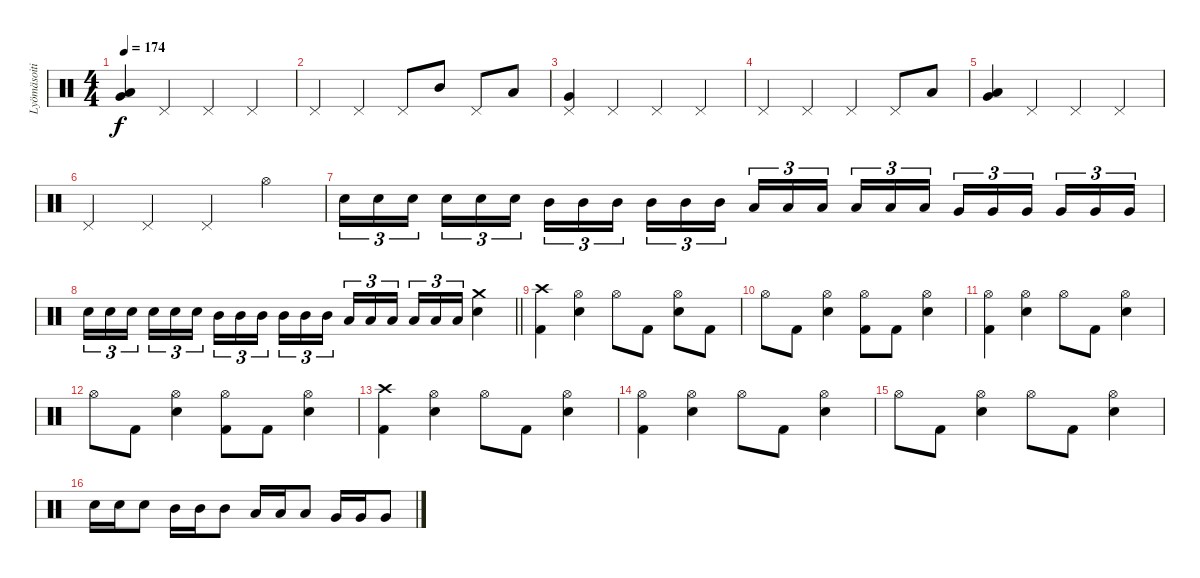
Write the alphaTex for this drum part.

\track ("Lyömäsoitin" "Lyömäsoiti") {instrument percussion}
\staff {score}
\articulation defaults
\ts (4 4)
\tempo 174
\clef neutral
\ks c
("Low Tom (hit)" "Very Low Tom (hit)").4{dy f} "Pedal Hi-Hat (hit)".4 "Pedal Hi-Hat (hit)".4 "Pedal Hi-Hat (hit)".4 |
"Pedal Hi-Hat (hit)".4 "Pedal Hi-Hat (hit)".4 "Pedal Hi-Hat (hit)".8 "Mid Tom (hit)".8 "Pedal Hi-Hat (hit)".8 "Low Tom (hit)".8 |
("Pedal Hi-Hat (hit)" "Very Low Tom (hit)").4 "Pedal Hi-Hat (hit)".4 "Pedal Hi-Hat (hit)".4 "Pedal Hi-Hat (hit)".4 |
"Pedal Hi-Hat (hit)".4 "Pedal Hi-Hat (hit)".4 "Pedal Hi-Hat (hit)".4 "Pedal Hi-Hat (hit)".8 "Low Tom (hit)".8 |
("Low Tom (hit)" "Very Low Tom (hit)").4 "Pedal Hi-Hat (hit)".4 "Pedal Hi-Hat (hit)".4 "Pedal Hi-Hat (hit)".4 |
"Pedal Hi-Hat (hit)".4 "Pedal Hi-Hat (hit)".4 "Pedal Hi-Hat (hit)".4 "Hi-Hat (open)".4 |
"Electric Snare (hit)".16{tu (3 2)} "Electric Snare (hit)".16{tu (3 2)} "Electric Snare (hit)".16{tu (3 2) beam splitsecondary} "Electric Snare (hit)".16{tu (3 2)} "Electric Snare (hit)".16{tu (3 2)} "Electric Snare (hit)".16{tu (3 2)} "Mid Tom (hit)".16{tu (3 2)} "Mid Tom (hit)".16{tu (3 2)} "Mid Tom (hit)".16{tu (3 2) beam splitsecondary} "Mid Tom (hit)".16{tu (3 2)} "Mid Tom (hit)".16{tu (3 2)} "Mid Tom (hit)".16{tu (3 2)} "Low Tom (hit)".16{tu (3 2)} "Low Tom (hit)".16{tu (3 2)} "Low Tom (hit)".16{tu (3 2) beam splitsecondary} "Low Tom (hit)".16{tu (3 2)} "Low Tom (hit)".16{tu (3 2)} "Low Tom (hit)".16{tu (3 2)} "Very Low Tom (hit)".16{tu (3 2)} "Very Low Tom (hit)".16{tu (3 2)} "Very Low Tom (hit)".16{tu (3 2) beam splitsecondary} "Very Low Tom (hit)".16{tu (3 2)} "Very Low Tom (hit)".16{tu (3 2)} "Very Low Tom (hit)".16{tu (3 2)} |
\barLineRight lightlight "Electric Snare (hit)".16{tu (3 2)} "Electric Snare (hit)".16{tu (3 2)} "Electric Snare (hit)".16{tu (3 2) beam splitsecondary} "Electric Snare (hit)".16{tu (3 2)} "Electric Snare (hit)".16{tu (3 2)} "Electric Snare (hit)".16{tu (3 2)} "Mid Tom (hit)".16{tu (3 2)} "Mid Tom (hit)".16{tu (3 2)} "Mid Tom (hit)".16{tu (3 2) beam splitsecondary} "Mid Tom (hit)".16{tu (3 2)} "Mid Tom (hit)".16{tu (3 2)} "Mid Tom (hit)".16{tu (3 2)} "Low Tom (hit)".16{tu (3 2)} "Low Tom (hit)".16{tu (3 2)} "Low Tom (hit)".16{tu (3 2) beam splitsecondary} "Low Tom (hit)".16{tu (3 2)} "Low Tom (hit)".16{tu (3 2)} "Low Tom (hit)".16{tu (3 2)}
("Crash medium (hit)" "Electric Snare (hit)").4 |
\section ("" "")
("Crash high (hit)" "Kick (hit) 2").4 ("Hi-Hat (open)" "Electric Snare (hit)").4 "Hi-Hat (open)".8 "Kick (hit) 2".8 ("Hi-Hat (open)" "Electric Snare (hit)").8 "Kick (hit) 2".8 |
"Hi-Hat (open)".8 "Kick (hit) 2".8 ("Hi-Hat (open)" "Electric Snare (hit)").4 ("Hi-Hat (open)" "Kick (hit) 2").8 "Kick (hit) 2".8 ("Hi-Hat (open)" "Electric Snare (hit)").4 |
("Hi-Hat (open)" "Kick (hit) 2").4 ("Hi-Hat (open)" "Electric Snare (hit)").4 "Hi-Hat (open)".8 "Kick (hit) 2".8 ("Hi-Hat (open)" "Electric Snare (hit)").4 |
"Hi-Hat (open)".8 "Kick (hit) 2".8 ("Hi-Hat (open)" "Electric Snare (hit)").4 ("Hi-Hat (open)" "Kick (hit) 2").8 "Kick (hit) 2".8 ("Hi-Hat (open)" "Electric Snare (hit)").4 |
("Crash high (hit)" "Kick (hit) 2").4 ("Hi-Hat (open)" "Electric Snare (hit)").4 "Hi-Hat (open)".8 "Kick (hit) 2".8 ("Hi-Hat (open)" "Electric Snare (hit)").4 |
("Hi-Hat (open)" "Kick (hit) 2").4 ("Hi-Hat (open)" "Electric Snare (hit)").4 "Hi-Hat (open)".8 "Kick (hit) 2".8 ("Hi-Hat (open)" "Electric Snare (hit)").4 |
"Hi-Hat (open)".8 "Kick (hit) 2".8 ("Hi-Hat (open)" "Electric Snare (hit)").4 "Hi-Hat (open)".8 "Kick (hit) 2".8 ("Hi-Hat (open)" "Electric Snare (hit)").4 |
"Electric Snare (hit)".16 "Electric Snare (hit)".16 "Electric Snare (hit)".8 "Mid Tom (hit)".16 "Mid Tom (hit)".16 "Mid Tom (hit)".8 "Low Tom (hit)".16 "Low Tom (hit)".16 "Low Tom (hit)".8 "Very Low Tom (hit)".16 "Very Low Tom (hit)".16 "Very Low Tom (hit)".8
